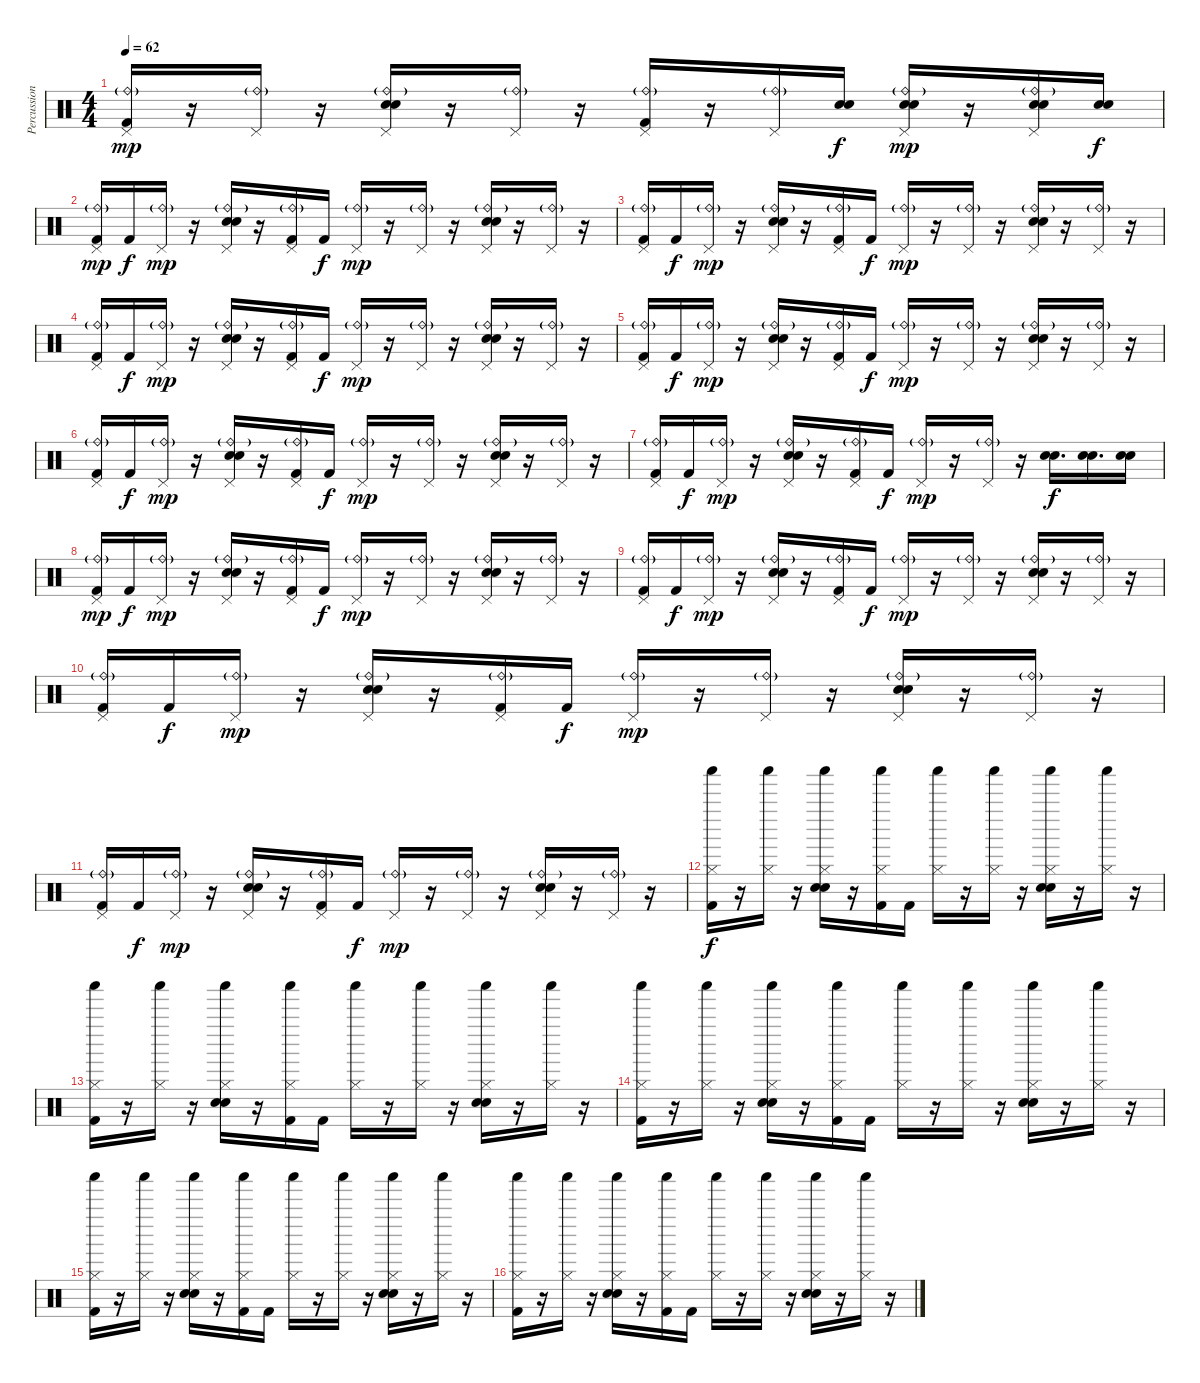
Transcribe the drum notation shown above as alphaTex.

\track ("Percussion" "Percussion") {instrument percussion}
\staff {score}
\articulation defaults
\ts (4 4)
\tempo 62
\clef neutral
\ks c
("Pedal Hi-Hat (hit)" "Ride (bell)"{g} "Kick (hit) 2").16{dy mp} r.16 ("Pedal Hi-Hat (hit)" "Ride (bell)"{g}).16 r.16 ("Pedal Hi-Hat (hit)" "Ride (bell)"{g} "Electric Snare (hit)" "Snare (hit) 2").16 r.16 ("Pedal Hi-Hat (hit)" "Ride (bell)"{g}).16 r.16 ("Pedal Hi-Hat (hit)" "Ride (bell)"{g} "Kick (hit) 2").16 r.16 ("Pedal Hi-Hat (hit)" "Ride (bell)"{g}).16 ("Electric Snare (hit)" "Snare (hit) 2").16{dy f} ("Pedal Hi-Hat (hit)" "Ride (bell)"{g} "Electric Snare (hit)" "Snare (hit) 2").16{dy mp} r.16 ("Pedal Hi-Hat (hit)" "Ride (bell)"{g} "Electric Snare (hit)" "Snare (hit) 2").16 ("Electric Snare (hit)" "Snare (hit) 2").16{dy f} |
("Pedal Hi-Hat (hit)" "Ride (bell)"{g} "Kick (hit) 2").16{dy mp} "Kick (hit) 2".16{dy f} ("Pedal Hi-Hat (hit)" "Ride (bell)"{g}).16{dy mp} r.16 ("Pedal Hi-Hat (hit)" "Ride (bell)"{g} "Electric Snare (hit)" "Snare (hit) 2").16 r.16 ("Pedal Hi-Hat (hit)" "Ride (bell)"{g} "Kick (hit) 2").16 "Kick (hit) 2".16{dy f} ("Pedal Hi-Hat (hit)" "Ride (bell)"{g}).16{dy mp} r.16 ("Pedal Hi-Hat (hit)" "Ride (bell)"{g}).16 r.16 ("Pedal Hi-Hat (hit)" "Ride (bell)"{g} "Electric Snare (hit)" "Snare (hit) 2").16 r.16 ("Pedal Hi-Hat (hit)" "Ride (bell)"{g}).16 r.16 |
("Pedal Hi-Hat (hit)" "Ride (bell)"{g} "Kick (hit) 2").16 "Kick (hit) 2".16{dy f} ("Pedal Hi-Hat (hit)" "Ride (bell)"{g}).16{dy mp} r.16 ("Pedal Hi-Hat (hit)" "Ride (bell)"{g} "Electric Snare (hit)" "Snare (hit) 2").16 r.16 ("Pedal Hi-Hat (hit)" "Ride (bell)"{g} "Kick (hit) 2").16 "Kick (hit) 2".16{dy f} ("Pedal Hi-Hat (hit)" "Ride (bell)"{g}).16{dy mp} r.16 ("Pedal Hi-Hat (hit)" "Ride (bell)"{g}).16 r.16 ("Pedal Hi-Hat (hit)" "Ride (bell)"{g} "Electric Snare (hit)" "Snare (hit) 2").16 r.16 ("Pedal Hi-Hat (hit)" "Ride (bell)"{g}).16 r.16 |
("Pedal Hi-Hat (hit)" "Ride (bell)"{g} "Kick (hit) 2").16 "Kick (hit) 2".16{dy f} ("Pedal Hi-Hat (hit)" "Ride (bell)"{g}).16{dy mp} r.16 ("Pedal Hi-Hat (hit)" "Ride (bell)"{g} "Electric Snare (hit)" "Snare (hit) 2").16 r.16 ("Pedal Hi-Hat (hit)" "Ride (bell)"{g} "Kick (hit) 2").16 "Kick (hit) 2".16{dy f} ("Pedal Hi-Hat (hit)" "Ride (bell)"{g}).16{dy mp} r.16 ("Pedal Hi-Hat (hit)" "Ride (bell)"{g}).16 r.16 ("Pedal Hi-Hat (hit)" "Ride (bell)"{g} "Electric Snare (hit)" "Snare (hit) 2").16 r.16 ("Pedal Hi-Hat (hit)" "Ride (bell)"{g}).16 r.16 |
("Pedal Hi-Hat (hit)" "Ride (bell)"{g} "Kick (hit) 2").16 "Kick (hit) 2".16{dy f} ("Pedal Hi-Hat (hit)" "Ride (bell)"{g}).16{dy mp} r.16 ("Pedal Hi-Hat (hit)" "Ride (bell)"{g} "Electric Snare (hit)" "Snare (hit) 2").16 r.16 ("Pedal Hi-Hat (hit)" "Ride (bell)"{g} "Kick (hit) 2").16 "Kick (hit) 2".16{dy f} ("Pedal Hi-Hat (hit)" "Ride (bell)"{g}).16{dy mp} r.16 ("Pedal Hi-Hat (hit)" "Ride (bell)"{g}).16 r.16 ("Pedal Hi-Hat (hit)" "Ride (bell)"{g} "Electric Snare (hit)" "Snare (hit) 2").16 r.16 ("Pedal Hi-Hat (hit)" "Ride (bell)"{g}).16 r.16 |
("Pedal Hi-Hat (hit)" "Ride (bell)"{g} "Kick (hit) 2").16 "Kick (hit) 2".16{dy f} ("Pedal Hi-Hat (hit)" "Ride (bell)"{g}).16{dy mp} r.16 ("Pedal Hi-Hat (hit)" "Ride (bell)"{g} "Electric Snare (hit)" "Snare (hit) 2").16 r.16 ("Pedal Hi-Hat (hit)" "Ride (bell)"{g} "Kick (hit) 2").16 "Kick (hit) 2".16{dy f} ("Pedal Hi-Hat (hit)" "Ride (bell)"{g}).16{dy mp} r.16 ("Pedal Hi-Hat (hit)" "Ride (bell)"{g}).16 r.16 ("Pedal Hi-Hat (hit)" "Ride (bell)"{g} "Electric Snare (hit)" "Snare (hit) 2").16 r.16 ("Pedal Hi-Hat (hit)" "Ride (bell)"{g}).16 r.16 |
("Pedal Hi-Hat (hit)" "Ride (bell)"{g} "Kick (hit) 2").16 "Kick (hit) 2".16{dy f} ("Pedal Hi-Hat (hit)" "Ride (bell)"{g}).16{dy mp} r.16 ("Pedal Hi-Hat (hit)" "Ride (bell)"{g} "Electric Snare (hit)" "Snare (hit) 2").16 r.16 ("Pedal Hi-Hat (hit)" "Ride (bell)"{g} "Kick (hit) 2").16 "Kick (hit) 2".16{dy f} ("Pedal Hi-Hat (hit)" "Ride (bell)"{g}).16{dy mp} r.16 ("Pedal Hi-Hat (hit)" "Ride (bell)"{g}).16 r.16 ("Electric Snare (hit)" "Snare (hit) 2").16{d dy f} ("Electric Snare (hit)" "Snare (hit) 2").16{d} ("Electric Snare (hit)" "Snare (hit) 2").16 |
("Pedal Hi-Hat (hit)" "Ride (bell)"{g} "Kick (hit) 2").16{dy mp} "Kick (hit) 2".16{dy f} ("Pedal Hi-Hat (hit)" "Ride (bell)"{g}).16{dy mp} r.16 ("Pedal Hi-Hat (hit)" "Ride (bell)"{g} "Electric Snare (hit)" "Snare (hit) 2").16 r.16 ("Pedal Hi-Hat (hit)" "Ride (bell)"{g} "Kick (hit) 2").16 "Kick (hit) 2".16{dy f} ("Pedal Hi-Hat (hit)" "Ride (bell)"{g}).16{dy mp} r.16 ("Pedal Hi-Hat (hit)" "Ride (bell)"{g}).16 r.16 ("Pedal Hi-Hat (hit)" "Ride (bell)"{g} "Electric Snare (hit)" "Snare (hit) 2").16 r.16 ("Pedal Hi-Hat (hit)" "Ride (bell)"{g}).16 r.16 |
("Pedal Hi-Hat (hit)" "Ride (bell)"{g} "Kick (hit) 2").16 "Kick (hit) 2".16{dy f} ("Pedal Hi-Hat (hit)" "Ride (bell)"{g}).16{dy mp} r.16 ("Pedal Hi-Hat (hit)" "Ride (bell)"{g} "Electric Snare (hit)" "Snare (hit) 2").16 r.16 ("Pedal Hi-Hat (hit)" "Ride (bell)"{g} "Kick (hit) 2").16 "Kick (hit) 2".16{dy f} ("Pedal Hi-Hat (hit)" "Ride (bell)"{g}).16{dy mp} r.16 ("Pedal Hi-Hat (hit)" "Ride (bell)"{g}).16 r.16 ("Pedal Hi-Hat (hit)" "Ride (bell)"{g} "Electric Snare (hit)" "Snare (hit) 2").16 r.16 ("Pedal Hi-Hat (hit)" "Ride (bell)"{g}).16 r.16 |
("Pedal Hi-Hat (hit)" "Ride (bell)"{g} "Kick (hit) 2").16 "Kick (hit) 2".16{dy f} ("Pedal Hi-Hat (hit)" "Ride (bell)"{g}).16{dy mp} r.16 ("Pedal Hi-Hat (hit)" "Ride (bell)"{g} "Electric Snare (hit)" "Snare (hit) 2").16 r.16 ("Pedal Hi-Hat (hit)" "Ride (bell)"{g} "Kick (hit) 2").16 "Kick (hit) 2".16{dy f} ("Pedal Hi-Hat (hit)" "Ride (bell)"{g}).16{dy mp} r.16 ("Pedal Hi-Hat (hit)" "Ride (bell)"{g}).16 r.16 ("Pedal Hi-Hat (hit)" "Ride (bell)"{g} "Electric Snare (hit)" "Snare (hit) 2").16 r.16 ("Pedal Hi-Hat (hit)" "Ride (bell)"{g}).16 r.16 |
("Pedal Hi-Hat (hit)" "Ride (bell)"{g} "Kick (hit) 2").16 "Kick (hit) 2".16{dy f} ("Pedal Hi-Hat (hit)" "Ride (bell)"{g}).16{dy mp} r.16 ("Pedal Hi-Hat (hit)" "Ride (bell)"{g} "Electric Snare (hit)" "Snare (hit) 2").16 r.16 ("Pedal Hi-Hat (hit)" "Ride (bell)"{g} "Kick (hit) 2").16 "Kick (hit) 2".16{dy f} ("Pedal Hi-Hat (hit)" "Ride (bell)"{g}).16{dy mp} r.16 ("Pedal Hi-Hat (hit)" "Ride (bell)"{g}).16 r.16 ("Pedal Hi-Hat (hit)" "Ride (bell)"{g} "Electric Snare (hit)" "Snare (hit) 2").16 r.16 ("Pedal Hi-Hat (hit)" "Ride (bell)"{g}).16 r.16 |
("Shaker (hit)" "Hi-Hat (closed)" "Kick (hit) 2").16{dy f} r.16 ("Shaker (hit)" "Hi-Hat (closed)").16 r.16 ("Shaker (hit)" "Hi-Hat (closed)" "Electric Snare (hit)" "Snare (hit) 2").16 r.16 ("Shaker (hit)" "Hi-Hat (closed)" "Kick (hit) 2").16 "Kick (hit) 2".16 ("Shaker (hit)" "Hi-Hat (closed)").16 r.16 ("Shaker (hit)" "Hi-Hat (closed)").16 r.16 ("Shaker (hit)" "Hi-Hat (closed)" "Electric Snare (hit)" "Snare (hit) 2").16 r.16 ("Shaker (hit)" "Hi-Hat (closed)").16 r.16 |
("Shaker (hit)" "Hi-Hat (closed)" "Kick (hit) 2").16 r.16 ("Shaker (hit)" "Hi-Hat (closed)").16 r.16 ("Shaker (hit)" "Hi-Hat (closed)" "Electric Snare (hit)" "Snare (hit) 2").16 r.16 ("Shaker (hit)" "Hi-Hat (closed)" "Kick (hit) 2").16 "Kick (hit) 2".16 ("Shaker (hit)" "Hi-Hat (closed)").16 r.16 ("Shaker (hit)" "Hi-Hat (closed)").16 r.16 ("Shaker (hit)" "Hi-Hat (closed)" "Electric Snare (hit)" "Snare (hit) 2").16 r.16 ("Shaker (hit)" "Hi-Hat (closed)").16 r.16 |
("Shaker (hit)" "Hi-Hat (closed)" "Kick (hit) 2").16 r.16 ("Shaker (hit)" "Hi-Hat (closed)").16 r.16 ("Shaker (hit)" "Hi-Hat (closed)" "Electric Snare (hit)" "Snare (hit) 2").16 r.16 ("Shaker (hit)" "Hi-Hat (closed)" "Kick (hit) 2").16 "Kick (hit) 2".16 ("Shaker (hit)" "Hi-Hat (closed)").16 r.16 ("Shaker (hit)" "Hi-Hat (closed)").16 r.16 ("Shaker (hit)" "Hi-Hat (closed)" "Electric Snare (hit)" "Snare (hit) 2").16 r.16 ("Shaker (hit)" "Hi-Hat (closed)").16 r.16 |
("Shaker (hit)" "Hi-Hat (closed)" "Kick (hit) 2").16 r.16 ("Shaker (hit)" "Hi-Hat (closed)").16 r.16 ("Shaker (hit)" "Hi-Hat (closed)" "Electric Snare (hit)" "Snare (hit) 2").16 r.16 ("Shaker (hit)" "Hi-Hat (closed)" "Kick (hit) 2").16 "Kick (hit) 2".16 ("Shaker (hit)" "Hi-Hat (closed)").16 r.16 ("Shaker (hit)" "Hi-Hat (closed)").16 r.16 ("Shaker (hit)" "Hi-Hat (closed)" "Electric Snare (hit)" "Snare (hit) 2").16 r.16 ("Shaker (hit)" "Hi-Hat (closed)").16 r.16 |
("Shaker (hit)" "Hi-Hat (closed)" "Kick (hit) 2").16 r.16 ("Shaker (hit)" "Hi-Hat (closed)").16 r.16 ("Shaker (hit)" "Hi-Hat (closed)" "Electric Snare (hit)" "Snare (hit) 2").16 r.16 ("Shaker (hit)" "Hi-Hat (closed)" "Kick (hit) 2").16 "Kick (hit) 2".16 ("Shaker (hit)" "Hi-Hat (closed)").16 r.16 ("Shaker (hit)" "Hi-Hat (closed)").16 r.16 ("Shaker (hit)" "Hi-Hat (closed)" "Electric Snare (hit)" "Snare (hit) 2").16 r.16 ("Shaker (hit)" "Hi-Hat (closed)").16 r.16
